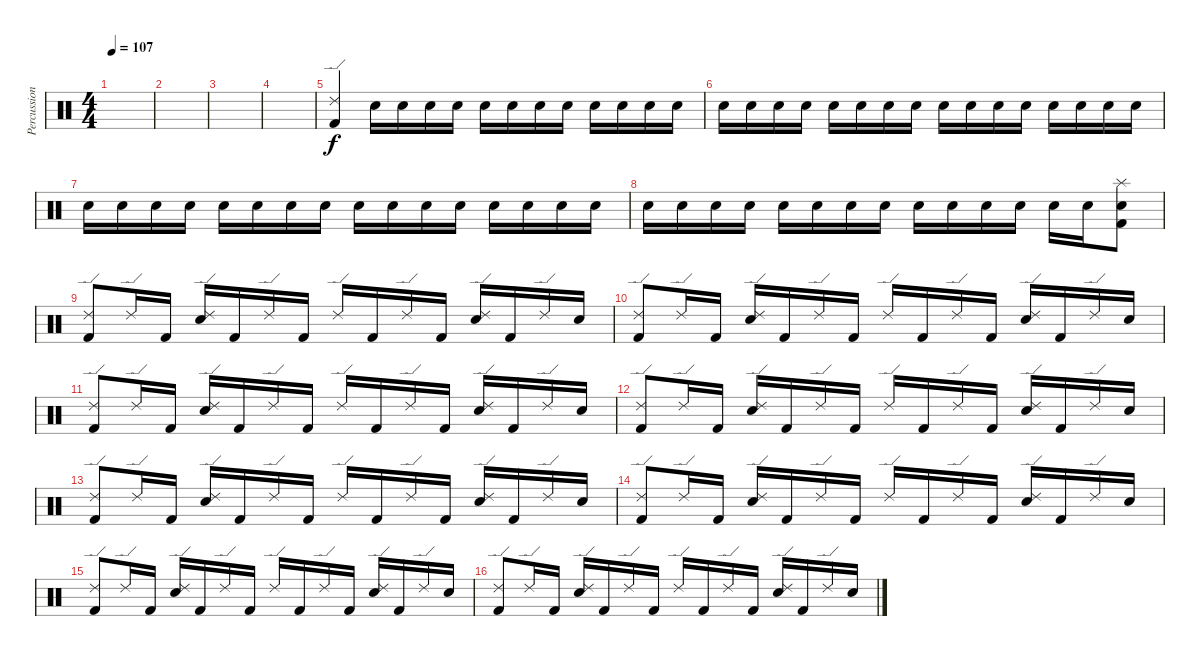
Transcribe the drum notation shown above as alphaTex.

\track ("Percussion" "Percussion") {instrument percussion}
\staff {score}
\articulation defaults
\ts (4 4)
\tempo 107
\clef neutral
\ks c
|
|
|
|
("Ride (edge) 2" "Kick (hit) 2").4{volume 4} "Electric Snare (hit)".16{volume 13} "Electric Snare (hit)".16 "Electric Snare (hit)".16 "Electric Snare (hit)".16 "Electric Snare (hit)".16 "Electric Snare (hit)".16 "Electric Snare (hit)".16 "Electric Snare (hit)".16 "Electric Snare (hit)".16 "Electric Snare (hit)".16 "Electric Snare (hit)".16 "Electric Snare (hit)".16 |
"Electric Snare (hit)".16 "Electric Snare (hit)".16 "Electric Snare (hit)".16 "Electric Snare (hit)".16 "Electric Snare (hit)".16 "Electric Snare (hit)".16 "Electric Snare (hit)".16 "Electric Snare (hit)".16 "Electric Snare (hit)".16 "Electric Snare (hit)".16 "Electric Snare (hit)".16 "Electric Snare (hit)".16 "Electric Snare (hit)".16 "Electric Snare (hit)".16 "Electric Snare (hit)".16 "Electric Snare (hit)".16 |
"Electric Snare (hit)".16 "Electric Snare (hit)".16 "Electric Snare (hit)".16 "Electric Snare (hit)".16 "Electric Snare (hit)".16 "Electric Snare (hit)".16 "Electric Snare (hit)".16 "Electric Snare (hit)".16 "Electric Snare (hit)".16 "Electric Snare (hit)".16 "Electric Snare (hit)".16 "Electric Snare (hit)".16 "Electric Snare (hit)".16 "Electric Snare (hit)".16 "Electric Snare (hit)".16 "Electric Snare (hit)".16 |
"Electric Snare (hit)".16 "Electric Snare (hit)".16 "Electric Snare (hit)".16 "Electric Snare (hit)".16 "Electric Snare (hit)".16 "Electric Snare (hit)".16 "Electric Snare (hit)".16 "Electric Snare (hit)".16 "Electric Snare (hit)".16 "Electric Snare (hit)".16 "Electric Snare (hit)".16 "Electric Snare (hit)".16 "Electric Snare (hit)".16 "Electric Snare (hit)".16 ("Splash (hit)" "Kick (hit) 2" "Electric Snare (hit)").8 |
("Ride (edge) 2" "Kick (hit) 2").8 "Ride (edge) 2".16 "Kick (hit) 2".16 ("Ride (edge) 2" "Electric Snare (hit)").16 "Kick (hit) 2".16 "Ride (edge) 2".16 "Kick (hit) 2".16 "Ride (edge) 2".16 "Kick (hit) 2".16 "Ride (edge) 2".16 "Kick (hit) 2".16 ("Ride (edge) 2" "Electric Snare (hit)").16 "Kick (hit) 2".16 "Ride (edge) 2".16 "Electric Snare (hit)".16 |
("Ride (edge) 2" "Kick (hit) 2").8 "Ride (edge) 2".16 "Kick (hit) 2".16 ("Ride (edge) 2" "Electric Snare (hit)").16 "Kick (hit) 2".16 "Ride (edge) 2".16 "Kick (hit) 2".16 "Ride (edge) 2".16 "Kick (hit) 2".16 "Ride (edge) 2".16 "Kick (hit) 2".16 ("Ride (edge) 2" "Electric Snare (hit)").16 "Kick (hit) 2".16 "Ride (edge) 2".16 "Electric Snare (hit)".16 |
("Ride (edge) 2" "Kick (hit) 2").8 "Ride (edge) 2".16 "Kick (hit) 2".16 ("Ride (edge) 2" "Electric Snare (hit)").16 "Kick (hit) 2".16 "Ride (edge) 2".16 "Kick (hit) 2".16 "Ride (edge) 2".16 "Kick (hit) 2".16 "Ride (edge) 2".16 "Kick (hit) 2".16 ("Ride (edge) 2" "Electric Snare (hit)").16 "Kick (hit) 2".16 "Ride (edge) 2".16 "Electric Snare (hit)".16 |
("Ride (edge) 2" "Kick (hit) 2").8 "Ride (edge) 2".16 "Kick (hit) 2".16 ("Ride (edge) 2" "Electric Snare (hit)").16 "Kick (hit) 2".16 "Ride (edge) 2".16 "Kick (hit) 2".16 "Ride (edge) 2".16 "Kick (hit) 2".16 "Ride (edge) 2".16 "Kick (hit) 2".16 ("Ride (edge) 2" "Electric Snare (hit)").16 "Kick (hit) 2".16 "Ride (edge) 2".16 "Electric Snare (hit)".16 |
("Ride (edge) 2" "Kick (hit) 2").8 "Ride (edge) 2".16 "Kick (hit) 2".16 ("Ride (edge) 2" "Electric Snare (hit)").16 "Kick (hit) 2".16 "Ride (edge) 2".16 "Kick (hit) 2".16 "Ride (edge) 2".16 "Kick (hit) 2".16 "Ride (edge) 2".16 "Kick (hit) 2".16 ("Ride (edge) 2" "Electric Snare (hit)").16 "Kick (hit) 2".16 "Ride (edge) 2".16 "Electric Snare (hit)".16 |
("Ride (edge) 2" "Kick (hit) 2").8 "Ride (edge) 2".16 "Kick (hit) 2".16 ("Ride (edge) 2" "Electric Snare (hit)").16 "Kick (hit) 2".16 "Ride (edge) 2".16 "Kick (hit) 2".16 "Ride (edge) 2".16 "Kick (hit) 2".16 "Ride (edge) 2".16 "Kick (hit) 2".16 ("Ride (edge) 2" "Electric Snare (hit)").16 "Kick (hit) 2".16 "Ride (edge) 2".16 "Electric Snare (hit)".16 |
("Ride (edge) 2" "Kick (hit) 2").8 "Ride (edge) 2".16 "Kick (hit) 2".16 ("Ride (edge) 2" "Electric Snare (hit)").16 "Kick (hit) 2".16 "Ride (edge) 2".16 "Kick (hit) 2".16 "Ride (edge) 2".16 "Kick (hit) 2".16 "Ride (edge) 2".16 "Kick (hit) 2".16 ("Ride (edge) 2" "Electric Snare (hit)").16 "Kick (hit) 2".16 "Ride (edge) 2".16 "Electric Snare (hit)".16 |
("Ride (edge) 2" "Kick (hit) 2").8 "Ride (edge) 2".16 "Kick (hit) 2".16 ("Ride (edge) 2" "Electric Snare (hit)").16 "Kick (hit) 2".16 "Ride (edge) 2".16 "Kick (hit) 2".16 "Ride (edge) 2".16 "Kick (hit) 2".16 "Ride (edge) 2".16 "Kick (hit) 2".16 ("Ride (edge) 2" "Electric Snare (hit)").16 "Kick (hit) 2".16 "Ride (edge) 2".16 "Electric Snare (hit)".16
